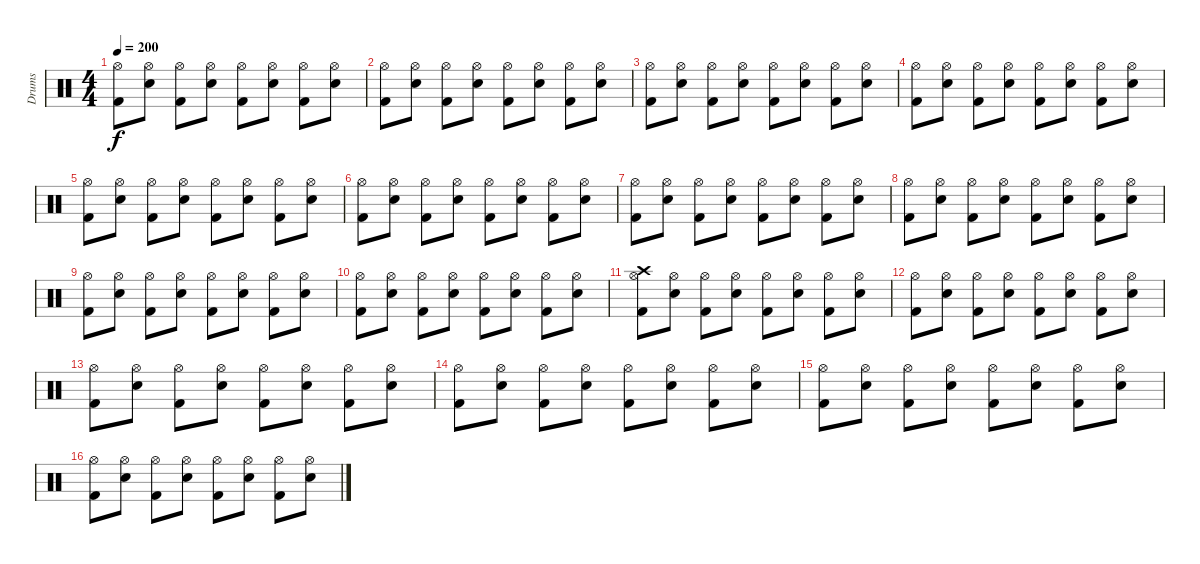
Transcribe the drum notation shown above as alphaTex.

\track ("Drums" "Drums") {instrument percussion}
\staff {score}
\articulation defaults
\ts (4 4)
\tempo 200
\clef neutral
\ks c
("Kick (hit) 2" "Hi-Hat (open)").8{dy f} ("Snare (hit) 2" "Hi-Hat (open)").8 ("Kick (hit) 2" "Hi-Hat (open)").8 ("Snare (hit) 2" "Hi-Hat (open)").8 ("Kick (hit) 2" "Hi-Hat (open)").8 ("Snare (hit) 2" "Hi-Hat (open)").8 ("Kick (hit) 2" "Hi-Hat (open)").8 ("Snare (hit) 2" "Hi-Hat (open)").8 |
("Kick (hit) 2" "Hi-Hat (open)").8 ("Snare (hit) 2" "Hi-Hat (open)").8 ("Kick (hit) 2" "Hi-Hat (open)").8 ("Snare (hit) 2" "Hi-Hat (open)").8 ("Kick (hit) 2" "Hi-Hat (open)").8 ("Snare (hit) 2" "Hi-Hat (open)").8 ("Kick (hit) 2" "Hi-Hat (open)").8 ("Snare (hit) 2" "Hi-Hat (open)").8 |
("Kick (hit) 2" "Hi-Hat (open)").8 ("Snare (hit) 2" "Hi-Hat (open)").8 ("Kick (hit) 2" "Hi-Hat (open)").8 ("Snare (hit) 2" "Hi-Hat (open)").8 ("Kick (hit) 2" "Hi-Hat (open)").8 ("Snare (hit) 2" "Hi-Hat (open)").8 ("Kick (hit) 2" "Hi-Hat (open)").8 ("Snare (hit) 2" "Hi-Hat (open)").8 |
("Kick (hit) 2" "Hi-Hat (open)").8 ("Snare (hit) 2" "Hi-Hat (open)").8 ("Kick (hit) 2" "Hi-Hat (open)").8 ("Snare (hit) 2" "Hi-Hat (open)").8 ("Kick (hit) 2" "Hi-Hat (open)").8 ("Snare (hit) 2" "Hi-Hat (open)").8 ("Kick (hit) 2" "Hi-Hat (open)").8 ("Snare (hit) 2" "Hi-Hat (open)").8 |
("Kick (hit) 2" "Hi-Hat (open)").8 ("Snare (hit) 2" "Hi-Hat (open)").8 ("Kick (hit) 2" "Hi-Hat (open)").8 ("Snare (hit) 2" "Hi-Hat (open)").8 ("Kick (hit) 2" "Hi-Hat (open)").8 ("Snare (hit) 2" "Hi-Hat (open)").8 ("Kick (hit) 2" "Hi-Hat (open)").8 ("Snare (hit) 2" "Hi-Hat (open)").8 |
("Kick (hit) 2" "Hi-Hat (open)").8 ("Snare (hit) 2" "Hi-Hat (open)").8 ("Kick (hit) 2" "Hi-Hat (open)").8 ("Snare (hit) 2" "Hi-Hat (open)").8 ("Kick (hit) 2" "Hi-Hat (open)").8 ("Snare (hit) 2" "Hi-Hat (open)").8 ("Kick (hit) 2" "Hi-Hat (open)").8 ("Snare (hit) 2" "Hi-Hat (open)").8 |
("Kick (hit) 2" "Hi-Hat (open)").8 ("Snare (hit) 2" "Hi-Hat (open)").8 ("Kick (hit) 2" "Hi-Hat (open)").8 ("Snare (hit) 2" "Hi-Hat (open)").8 ("Kick (hit) 2" "Hi-Hat (open)").8 ("Snare (hit) 2" "Hi-Hat (open)").8 ("Kick (hit) 2" "Hi-Hat (open)").8 ("Snare (hit) 2" "Hi-Hat (open)").8 |
("Kick (hit) 2" "Hi-Hat (open)").8 ("Snare (hit) 2" "Hi-Hat (open)").8 ("Kick (hit) 2" "Hi-Hat (open)").8 ("Snare (hit) 2" "Hi-Hat (open)").8 ("Kick (hit) 2" "Hi-Hat (open)").8 ("Snare (hit) 2" "Hi-Hat (open)").8 ("Kick (hit) 2" "Hi-Hat (open)").8 ("Snare (hit) 2" "Hi-Hat (open)").8 |
("Kick (hit) 2" "Hi-Hat (open)").8 ("Snare (hit) 2" "Hi-Hat (open)").8 ("Kick (hit) 2" "Hi-Hat (open)").8 ("Snare (hit) 2" "Hi-Hat (open)").8 ("Kick (hit) 2" "Hi-Hat (open)").8 ("Snare (hit) 2" "Hi-Hat (open)").8 ("Kick (hit) 2" "Hi-Hat (open)").8 ("Snare (hit) 2" "Hi-Hat (open)").8 |
("Kick (hit) 2" "Hi-Hat (open)").8 ("Snare (hit) 2" "Hi-Hat (open)").8 ("Kick (hit) 2" "Hi-Hat (open)").8 ("Snare (hit) 2" "Hi-Hat (open)").8 ("Kick (hit) 2" "Hi-Hat (open)").8 ("Snare (hit) 2" "Hi-Hat (open)").8 ("Kick (hit) 2" "Hi-Hat (open)").8 ("Snare (hit) 2" "Hi-Hat (open)").8 |
("Kick (hit) 2" "Hi-Hat (open)" "Crash high (hit)").8 ("Snare (hit) 2" "Hi-Hat (open)").8 ("Kick (hit) 2" "Hi-Hat (open)").8 ("Snare (hit) 2" "Hi-Hat (open)").8 ("Kick (hit) 2" "Hi-Hat (open)").8 ("Snare (hit) 2" "Hi-Hat (open)").8 ("Kick (hit) 2" "Hi-Hat (open)").8 ("Snare (hit) 2" "Hi-Hat (open)").8 |
("Kick (hit) 2" "Hi-Hat (open)").8 ("Snare (hit) 2" "Hi-Hat (open)").8 ("Kick (hit) 2" "Hi-Hat (open)").8 ("Snare (hit) 2" "Hi-Hat (open)").8 ("Kick (hit) 2" "Hi-Hat (open)").8 ("Snare (hit) 2" "Hi-Hat (open)").8 ("Kick (hit) 2" "Hi-Hat (open)").8 ("Snare (hit) 2" "Hi-Hat (open)").8 |
("Kick (hit) 2" "Hi-Hat (open)").8 ("Snare (hit) 2" "Hi-Hat (open)").8 ("Kick (hit) 2" "Hi-Hat (open)").8 ("Snare (hit) 2" "Hi-Hat (open)").8 ("Kick (hit) 2" "Hi-Hat (open)").8 ("Snare (hit) 2" "Hi-Hat (open)").8 ("Kick (hit) 2" "Hi-Hat (open)").8 ("Snare (hit) 2" "Hi-Hat (open)").8 |
("Kick (hit) 2" "Hi-Hat (open)").8 ("Snare (hit) 2" "Hi-Hat (open)").8 ("Kick (hit) 2" "Hi-Hat (open)").8 ("Snare (hit) 2" "Hi-Hat (open)").8 ("Kick (hit) 2" "Hi-Hat (open)").8 ("Snare (hit) 2" "Hi-Hat (open)").8 ("Kick (hit) 2" "Hi-Hat (open)").8 ("Snare (hit) 2" "Hi-Hat (open)").8 |
("Kick (hit) 2" "Hi-Hat (open)").8 ("Snare (hit) 2" "Hi-Hat (open)").8 ("Kick (hit) 2" "Hi-Hat (open)").8 ("Snare (hit) 2" "Hi-Hat (open)").8 ("Kick (hit) 2" "Hi-Hat (open)").8 ("Snare (hit) 2" "Hi-Hat (open)").8 ("Kick (hit) 2" "Hi-Hat (open)").8 ("Snare (hit) 2" "Hi-Hat (open)").8 |
("Kick (hit) 2" "Hi-Hat (open)").8 ("Snare (hit) 2" "Hi-Hat (open)").8 ("Kick (hit) 2" "Hi-Hat (open)").8 ("Snare (hit) 2" "Hi-Hat (open)").8 ("Kick (hit) 2" "Hi-Hat (open)").8 ("Snare (hit) 2" "Hi-Hat (open)").8 ("Kick (hit) 2" "Hi-Hat (open)").8 ("Snare (hit) 2" "Hi-Hat (open)").8
